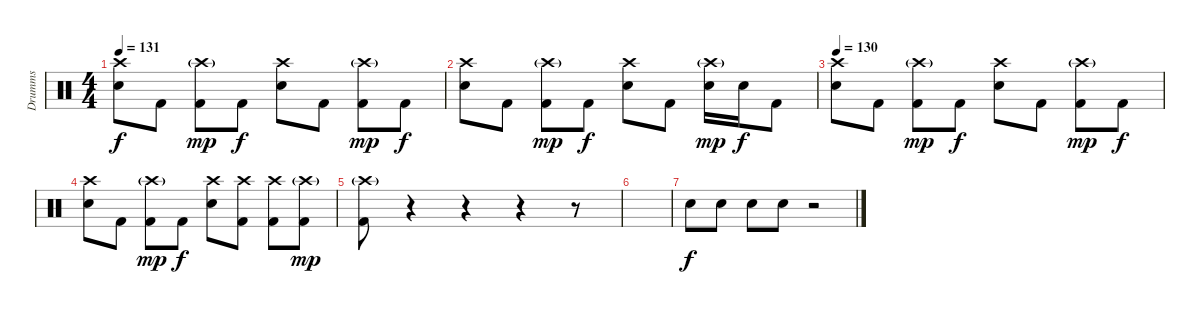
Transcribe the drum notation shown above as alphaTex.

\track ("Drumms" "Drumms") {instrument percussion}
\staff {score}
\articulation defaults
\ts (4 4)
\tempo 131
\clef neutral
\ks c
("Snare (hit) 2" "Crash high (hit)").8{dy f} "Kick (hit) 2".8 ("Kick (hit) 2" "Crash high (hit)"{g}).8{dy mp} "Kick (hit) 2".8{dy f} ("Snare (hit) 2" "Crash high (hit)").8 "Kick (hit) 2".8 ("Kick (hit) 2" "Crash high (hit)"{g}).8{dy mp} "Kick (hit) 2".8{dy f} |
("Snare (hit) 2" "Crash high (hit)").8 "Kick (hit) 2".8 ("Kick (hit) 2" "Crash high (hit)"{g}).8{dy mp} "Kick (hit) 2".8{dy f} ("Snare (hit) 2" "Crash high (hit)").8 "Kick (hit) 2".8 ("Crash high (hit)"{g} "Snare (hit) 2").16{dy mp} "Snare (hit) 2".16{dy f} "Kick (hit) 2".8 |
\tempo 130
("Snare (hit) 2" "Crash high (hit)").8 "Kick (hit) 2".8 ("Kick (hit) 2" "Crash high (hit)"{g}).8{dy mp} "Kick (hit) 2".8{dy f} ("Snare (hit) 2" "Crash high (hit)").8 "Kick (hit) 2".8 ("Kick (hit) 2" "Crash high (hit)"{g}).8{dy mp} "Kick (hit) 2".8{dy f} |
("Snare (hit) 2" "Crash high (hit)").8 "Kick (hit) 2".8 ("Kick (hit) 2" "Crash high (hit)"{g}).8{dy mp} "Kick (hit) 2".8{dy f} ("Snare (hit) 2" "Crash high (hit)").8 ("Kick (hit) 2" "Crash high (hit)").8 ("Kick (hit) 2" "Crash high (hit)").8 ("Kick (hit) 2" "Crash high (hit)"{g}).8{dy mp} |
("Kick (hit) 2" "Crash high (hit)"{g}).8 r.4 r.4 r.4 r.8 |
|
"Snare (hit) 2".8{dy f} "Snare (hit) 2".8 "Snare (hit) 2".8 "Snare (hit) 2".8 r.2
